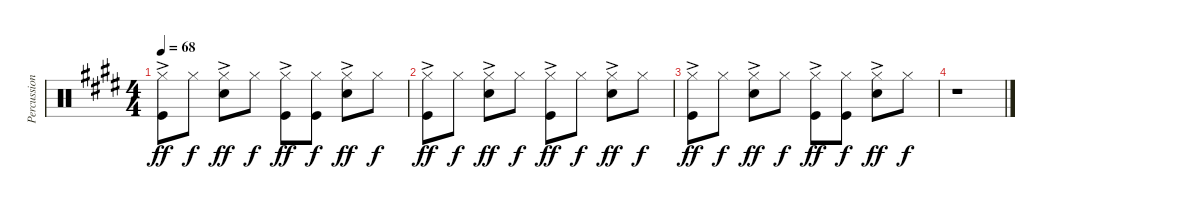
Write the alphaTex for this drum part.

\track ("Percussion" "Percussion") {instrument percussion}
\staff {score}
\articulation defaults
\ts (4 4)
\tempo 68
\clef neutral
\ks e
("Hi-Hat (closed)"{ac} "Kick (hit)").8{dy ff} "Hi-Hat (closed)".8{dy f} ("Hi-Hat (closed)"{ac} "Snare (hit) 2").8{dy ff} "Hi-Hat (closed)".8{dy f} ("Hi-Hat (closed)"{ac} "Kick (hit)").8{dy ff} ("Hi-Hat (closed)" "Kick (hit)").8{dy f} ("Hi-Hat (closed)"{ac} "Snare (hit) 2").8{dy ff} "Hi-Hat (closed)".8{dy f} |
("Hi-Hat (closed)"{ac} "Kick (hit)").8{dy ff} "Hi-Hat (closed)".8{dy f} ("Hi-Hat (closed)"{ac} "Snare (hit) 2").8{dy ff} "Hi-Hat (closed)".8{dy f} ("Hi-Hat (closed)"{ac} "Kick (hit)").8{dy ff} "Hi-Hat (closed)".8{dy f} ("Hi-Hat (closed)"{ac} "Snare (hit) 2").8{dy ff} "Hi-Hat (closed)".8{dy f} |
("Hi-Hat (closed)"{ac} "Kick (hit)").8{dy ff} "Hi-Hat (closed)".8{dy f} ("Hi-Hat (closed)"{ac} "Snare (hit) 2").8{dy ff} "Hi-Hat (closed)".8{dy f} ("Hi-Hat (closed)"{ac} "Kick (hit)").8{dy ff} ("Hi-Hat (closed)" "Kick (hit)").8{dy f} ("Hi-Hat (closed)"{ac} "Snare (hit) 2").8{dy ff} "Hi-Hat (closed)".8{dy f} |
r.1
